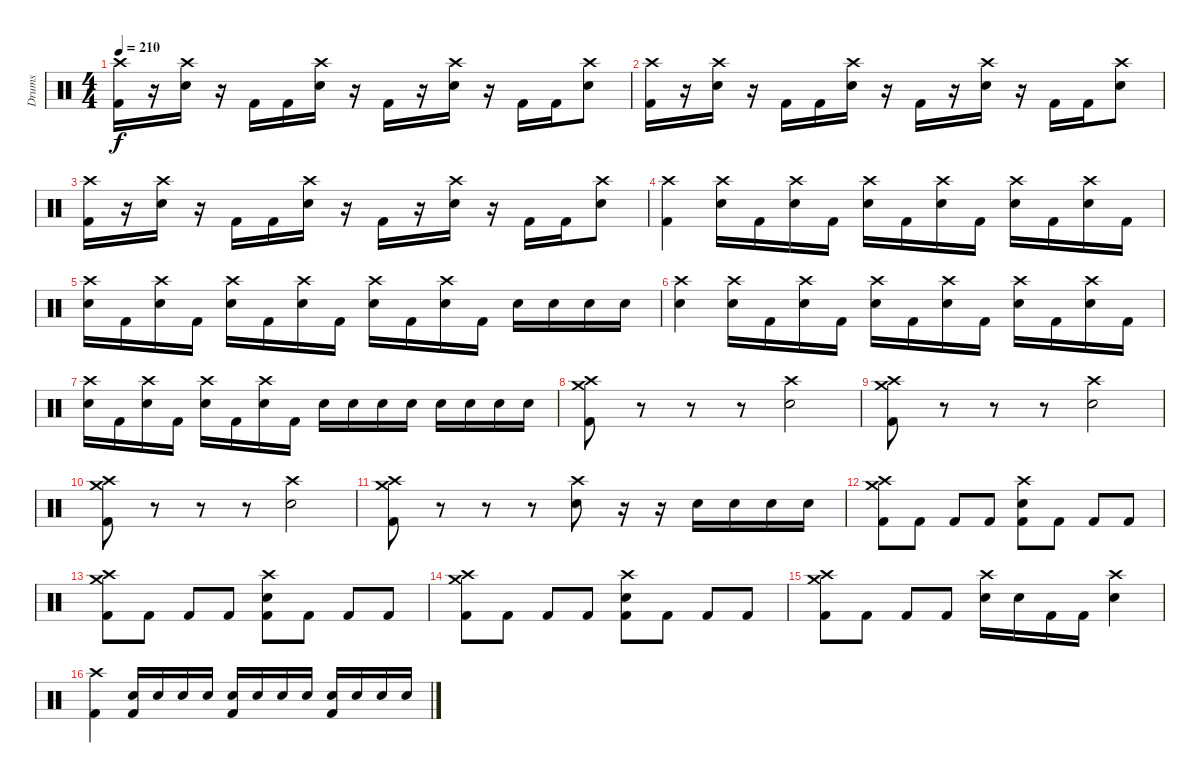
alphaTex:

\track ("Drums" "Drums") {instrument percussion}
\staff {score}
\articulation defaults
\ts (4 4)
\tempo 210
\clef neutral
\ks c
("Crash high (hit)" "Kick (hit) 2").16{dy f} r.16 ("Crash high (hit)" "Snare (hit) 2").16 r.16 "Kick (hit) 2".16 "Kick (hit) 2".16 ("Crash high (hit)" "Snare (hit) 2").16 r.16 "Kick (hit) 2".16 r.16 ("Crash high (hit)" "Snare (hit) 2").16 r.16 "Kick (hit) 2".16 "Kick (hit) 2".16 ("Crash high (hit)" "Snare (hit) 2").8 |
("Crash high (hit)" "Kick (hit) 2").16 r.16 ("Crash high (hit)" "Snare (hit) 2").16 r.16 "Kick (hit) 2".16 "Kick (hit) 2".16 ("Crash high (hit)" "Snare (hit) 2").16 r.16 "Kick (hit) 2".16 r.16 ("Crash high (hit)" "Snare (hit) 2").16 r.16 "Kick (hit) 2".16 "Kick (hit) 2".16 ("Crash high (hit)" "Snare (hit) 2").8 |
("Crash high (hit)" "Kick (hit) 2").16 r.16 ("Crash high (hit)" "Snare (hit) 2").16 r.16 "Kick (hit) 2".16 "Kick (hit) 2".16 ("Crash high (hit)" "Snare (hit) 2").16 r.16 "Kick (hit) 2".16 r.16 ("Crash high (hit)" "Snare (hit) 2").16 r.16 "Kick (hit) 2".16 "Kick (hit) 2".16 ("Crash high (hit)" "Snare (hit) 2").8 |
("Crash high (hit)" "Kick (hit) 2").4 ("Crash high (hit)" "Snare (hit) 2").16 "Kick (hit) 2".16 ("Crash high (hit)" "Snare (hit) 2").16 "Kick (hit) 2".16 ("Crash high (hit)" "Snare (hit) 2").16 "Kick (hit) 2".16 ("Crash high (hit)" "Snare (hit) 2").16 "Kick (hit) 2".16 ("Crash high (hit)" "Snare (hit) 2").16 "Kick (hit) 2".16 ("Crash high (hit)" "Snare (hit) 2").16 "Kick (hit) 2".16 |
("Crash high (hit)" "Snare (hit) 2").16 "Kick (hit) 2".16 ("Crash high (hit)" "Snare (hit) 2").16 "Kick (hit) 2".16 ("Crash high (hit)" "Snare (hit) 2").16 "Kick (hit) 2".16 ("Crash high (hit)" "Snare (hit) 2").16 "Kick (hit) 2".16 ("Crash high (hit)" "Snare (hit) 2").16 "Kick (hit) 2".16 ("Crash high (hit)" "Snare (hit) 2").16 "Kick (hit) 2".16 "Snare (hit) 2".16 "Snare (hit) 2".16 "Snare (hit) 2".16 "Snare (hit) 2".16 |
("Crash high (hit)" "Snare (hit) 2").4 ("Crash high (hit)" "Snare (hit) 2").16 "Kick (hit) 2".16 ("Crash high (hit)" "Snare (hit) 2").16 "Kick (hit) 2".16 ("Crash high (hit)" "Snare (hit) 2").16 "Kick (hit) 2".16 ("Crash high (hit)" "Snare (hit) 2").16 "Kick (hit) 2".16 ("Crash high (hit)" "Snare (hit) 2").16 "Kick (hit) 2".16 ("Crash high (hit)" "Snare (hit) 2").16 "Kick (hit) 2".16 |
("Crash high (hit)" "Snare (hit) 2").16 "Kick (hit) 2".16 ("Crash high (hit)" "Snare (hit) 2").16 "Kick (hit) 2".16 ("Crash high (hit)" "Snare (hit) 2").16 "Kick (hit) 2".16 ("Crash high (hit)" "Snare (hit) 2").16 "Kick (hit) 2".16 "Snare (hit) 2".16 "Snare (hit) 2".16 "Snare (hit) 2".16 "Snare (hit) 2".16 "Snare (hit) 2".16 "Snare (hit) 2".16 "Snare (hit) 2".16 "Snare (hit) 2".16 |
("Crash medium (hit)" "Crash high (hit)" "Kick (hit) 2").8 r.8 r.8 r.8 ("Crash high (hit)" "Snare (hit) 2").2 |
("Crash medium (hit)" "Crash high (hit)" "Kick (hit) 2").8 r.8 r.8 r.8 ("Crash high (hit)" "Snare (hit) 2").2 |
("Crash medium (hit)" "Crash high (hit)" "Kick (hit) 2").8 r.8 r.8 r.8 ("Crash high (hit)" "Snare (hit) 2").2 |
("Crash medium (hit)" "Crash high (hit)" "Kick (hit) 2").8 r.8 r.8 r.8 ("Crash high (hit)" "Snare (hit) 2").8 r.16 r.16 "Snare (hit) 2".16 "Snare (hit) 2".16 "Snare (hit) 2".16 "Snare (hit) 2".16 |
("Crash medium (hit)" "Crash high (hit)" "Kick (hit) 2").8 "Kick (hit) 2".8 "Kick (hit) 2".8 "Kick (hit) 2".8 ("Crash high (hit)" "Snare (hit) 2" "Kick (hit) 2").8 "Kick (hit) 2".8 "Kick (hit) 2".8 "Kick (hit) 2".8 |
("Crash medium (hit)" "Crash high (hit)" "Kick (hit) 2").8 "Kick (hit) 2".8 "Kick (hit) 2".8 "Kick (hit) 2".8 ("Crash high (hit)" "Snare (hit) 2" "Kick (hit) 2").8 "Kick (hit) 2".8 "Kick (hit) 2".8 "Kick (hit) 2".8 |
("Crash medium (hit)" "Crash high (hit)" "Kick (hit) 2").8 "Kick (hit) 2".8 "Kick (hit) 2".8 "Kick (hit) 2".8 ("Crash high (hit)" "Snare (hit) 2" "Kick (hit) 2").8 "Kick (hit) 2".8 "Kick (hit) 2".8 "Kick (hit) 2".8 |
("Crash medium (hit)" "Crash high (hit)" "Kick (hit) 2").8 "Kick (hit) 2".8 "Kick (hit) 2".8 "Kick (hit) 2".8 ("Crash high (hit)" "Snare (hit) 2").16 "Snare (hit) 2".16 "Kick (hit) 2".16 "Kick (hit) 2".16 ("Crash high (hit)" "Snare (hit) 2").4 |
("Crash high (hit)" "Kick (hit) 2").4 ("Snare (hit) 2" "Kick (hit) 2").16 "Snare (hit) 2".16 "Snare (hit) 2".16 "Snare (hit) 2".16 ("Snare (hit) 2" "Kick (hit) 2").16 "Snare (hit) 2".16 "Snare (hit) 2".16 "Snare (hit) 2".16 ("Snare (hit) 2" "Kick (hit) 2").16 "Snare (hit) 2".16 "Snare (hit) 2".16 "Snare (hit) 2".16
